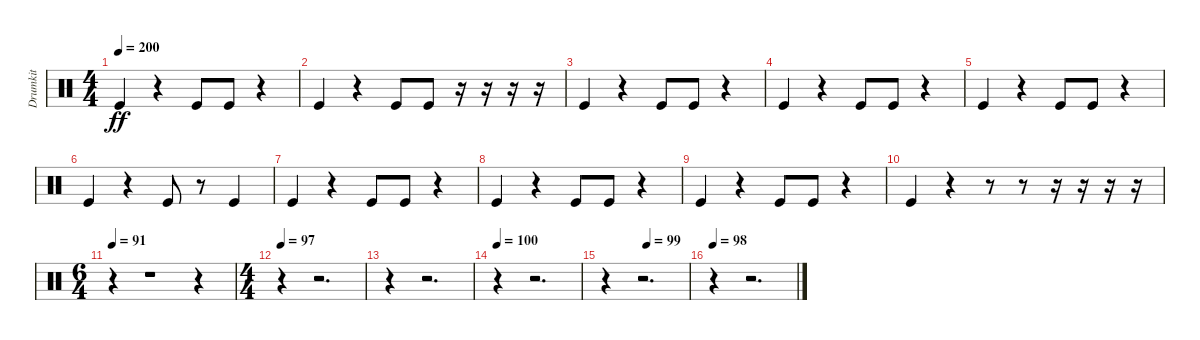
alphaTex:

\track ("Drumkit" "Drumkit") {instrument percussion}
\staff {score}
\articulation defaults
\ts (4 4)
\tempo 200
\clef neutral
\ks c "Kick (hit)".4{dy ff}
r.4 "Kick (hit)".8 "Kick (hit)".8 r.4 |
"Kick (hit)".4 r.4 "Kick (hit)".8 "Kick (hit)".8 r.16 r.16 r.16 r.16 |
"Kick (hit)".4 r.4 "Kick (hit)".8 "Kick (hit)".8 r.4 |
"Kick (hit)".4 r.4 "Kick (hit)".8 "Kick (hit)".8 r.4 |
"Kick (hit)".4 r.4 "Kick (hit)".8 "Kick (hit)".8 r.4 |
"Kick (hit)".4 r.4 "Kick (hit)".8 r.8 "Kick (hit)".4 |
"Kick (hit)".4 r.4 "Kick (hit)".8 "Kick (hit)".8 r.4 |
"Kick (hit)".4 r.4 "Kick (hit)".8 "Kick (hit)".8 r.4 |
"Kick (hit)".4 r.4 "Kick (hit)".8 "Kick (hit)".8 r.4 |
"Kick (hit)".4 r.4 r.8 r.8 r.16 r.16 r.16 r.16 |
\ts (6 4)
\tempo 91
r.4 r.1 r.4 |
\ts (4 4)
\tempo 97
r.4 r.2{d} |
r.4 r.2{d} |
\tempo 100
r.4 r.2{d} |
\tempo (99 0.5)
r.4 r.2{d} |
\tempo 98
r.4 r.2{d}
